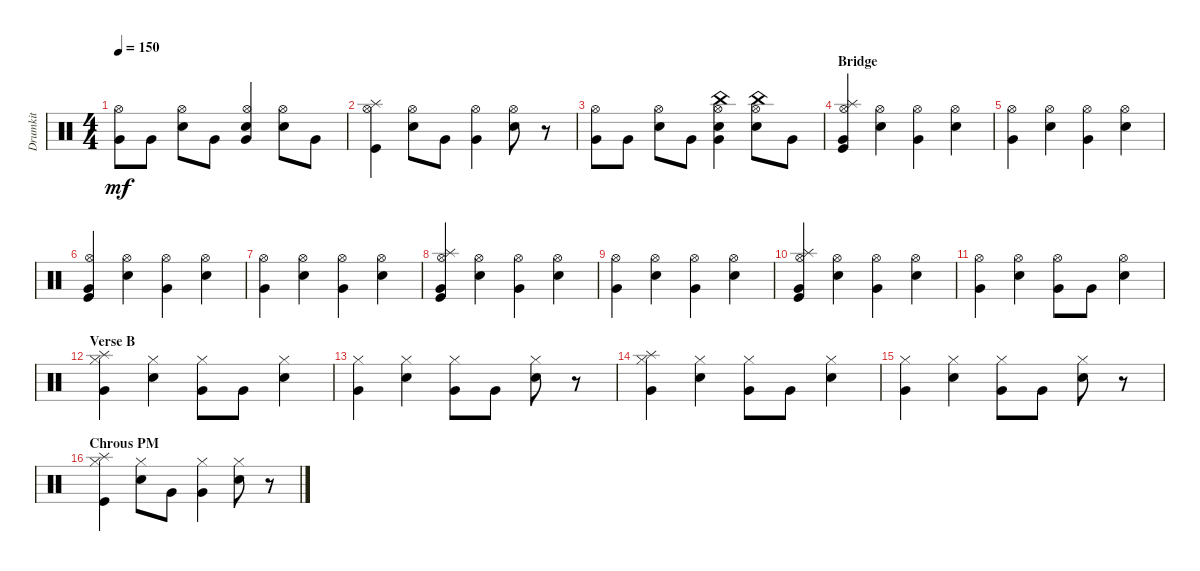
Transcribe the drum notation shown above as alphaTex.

\track ("Drumkit" "Drumkit") {instrument percussion}
\staff {score}
\articulation defaults
\ts (4 4)
\tempo 150
\clef neutral
\ks c
("Very Low Tom (hit)" "Hi-Hat (open)").8{dy mf} "Very Low Tom (hit)".8 ("Snare (hit) 2" "Hi-Hat (open)").8 "Very Low Tom (hit)".8 ("Very Low Tom (hit)" "Hi-Hat (open)" "Snare (hit) 2").4 ("Snare (hit) 2" "Hi-Hat (open)").8 "Very Low Tom (hit)".8 |
("Splash (hit)" "Kick (hit)" "Hi-Hat (open)").4 ("Snare (hit) 2" "Hi-Hat (open)").8 "Very Low Tom (hit)".8 ("Very Low Tom (hit)" "Hi-Hat (open)").4 ("Snare (hit) 2" "Hi-Hat (open)").8 r.8 |
("Very Low Tom (hit)" "Hi-Hat (open)").8 "Very Low Tom (hit)".8 ("Snare (hit) 2" "Hi-Hat (open)").8 "Very Low Tom (hit)".8 ("Very Low Tom (hit)" "Hi-Hat (open)" "Snare (hit) 2" "China (hit)").4 ("Snare (hit) 2" "Hi-Hat (open)" "China (hit)").8 "Very Low Tom (hit)".8 |
\section ("" "Bridge")
("Splash (hit)" "Kick (hit)" "Hi-Hat (open)" "Very Low Tom (hit)").4 ("Snare (hit) 2" "Hi-Hat (open)").4 ("Hi-Hat (open)" "Very Low Tom (hit)").4 ("Snare (hit) 2" "Hi-Hat (open)").4 |
("Hi-Hat (open)" "Very Low Tom (hit)").4 ("Snare (hit) 2" "Hi-Hat (open)").4 ("Hi-Hat (open)" "Very Low Tom (hit)").4 ("Snare (hit) 2" "Hi-Hat (open)").4 |
("Kick (hit)" "Hi-Hat (open)" "Very Low Tom (hit)").4 ("Snare (hit) 2" "Hi-Hat (open)").4 ("Hi-Hat (open)" "Very Low Tom (hit)").4 ("Snare (hit) 2" "Hi-Hat (open)").4 |
("Hi-Hat (open)" "Very Low Tom (hit)").4 ("Snare (hit) 2" "Hi-Hat (open)").4 ("Hi-Hat (open)" "Very Low Tom (hit)").4 ("Snare (hit) 2" "Hi-Hat (open)").4 |
("Splash (hit)" "Kick (hit)" "Hi-Hat (open)" "Very Low Tom (hit)").4 ("Snare (hit) 2" "Hi-Hat (open)").4 ("Hi-Hat (open)" "Very Low Tom (hit)").4 ("Snare (hit) 2" "Hi-Hat (open)").4 |
("Hi-Hat (open)" "Very Low Tom (hit)").4 ("Snare (hit) 2" "Hi-Hat (open)").4 ("Hi-Hat (open)" "Very Low Tom (hit)").4 ("Snare (hit) 2" "Hi-Hat (open)").4 |
("Splash (hit)" "Kick (hit)" "Hi-Hat (open)" "Very Low Tom (hit)").4 ("Snare (hit) 2" "Hi-Hat (open)").4 ("Hi-Hat (open)" "Very Low Tom (hit)").4 ("Snare (hit) 2" "Hi-Hat (open)").4 |
("Hi-Hat (open)" "Very Low Tom (hit)").4 ("Snare (hit) 2" "Hi-Hat (open)").4 ("Hi-Hat (open)" "Very Low Tom (hit)").8 "Very Low Tom (hit)".8 ("Snare (hit) 2" "Hi-Hat (open)").4 |
\section ("" "Verse B")
("Very Low Tom (hit)" "Hi-Hat (closed)" "Splash (hit)").4 ("Snare (hit) 2" "Hi-Hat (closed)").4 ("Very Low Tom (hit)" "Hi-Hat (closed)").8 "Very Low Tom (hit)".8 ("Snare (hit) 2" "Hi-Hat (closed)").4 |
("Hi-Hat (closed)" "Very Low Tom (hit)").4 ("Snare (hit) 2" "Hi-Hat (closed)").4 ("Very Low Tom (hit)" "Hi-Hat (closed)").8 "Very Low Tom (hit)".8 ("Snare (hit) 2" "Hi-Hat (closed)").8 r.8 |
("Very Low Tom (hit)" "Hi-Hat (closed)" "Splash (hit)").4 ("Snare (hit) 2" "Hi-Hat (closed)").4 ("Very Low Tom (hit)" "Hi-Hat (closed)").8 "Very Low Tom (hit)".8 ("Snare (hit) 2" "Hi-Hat (closed)").4 |
("Hi-Hat (closed)" "Very Low Tom (hit)").4 ("Snare (hit) 2" "Hi-Hat (closed)").4 ("Very Low Tom (hit)" "Hi-Hat (closed)").8 "Very Low Tom (hit)".8 ("Snare (hit) 2" "Hi-Hat (closed)").8 r.8 |
\section ("" "Chrous PM")
("Splash (hit)" "Kick (hit)" "Hi-Hat (closed)").4 ("Snare (hit) 2" "Hi-Hat (closed)").8 "Very Low Tom (hit)".8 ("Very Low Tom (hit)" "Hi-Hat (closed)").4 ("Snare (hit) 2" "Hi-Hat (closed)").8 r.8
